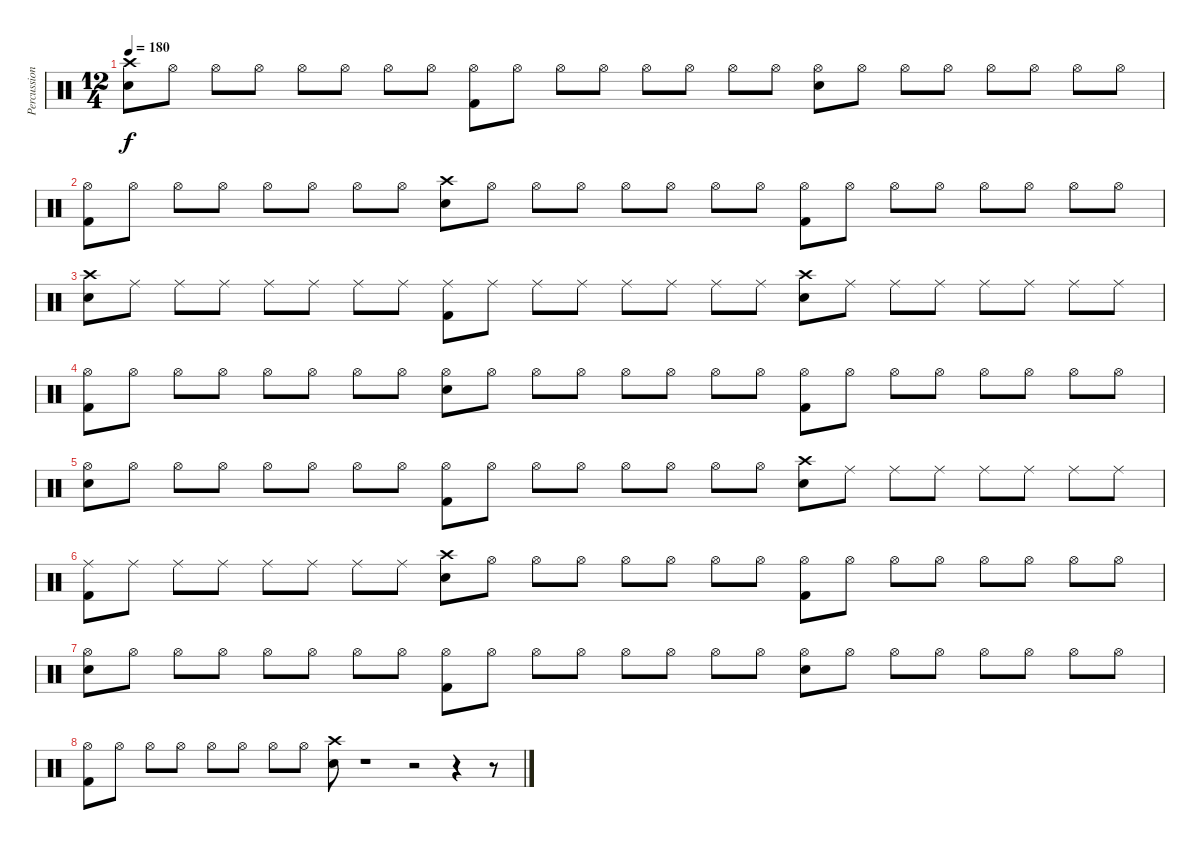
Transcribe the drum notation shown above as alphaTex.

\track ("Percussion" "Percussion") {instrument percussion}
\staff {score}
\articulation defaults
\ts (12 4)
\tempo 180
\clef neutral
\ks c
("Crash high (hit)" "Electric Snare (hit)").8{dy f} "Hi-Hat (open)".8 "Hi-Hat (open)".8 "Hi-Hat (open)".8 "Hi-Hat (open)".8 "Hi-Hat (open)".8 "Hi-Hat (open)".8 "Hi-Hat (open)".8 ("Hi-Hat (open)" "Kick (hit) 2").8 "Hi-Hat (open)".8 "Hi-Hat (open)".8 "Hi-Hat (open)".8 "Hi-Hat (open)".8 "Hi-Hat (open)".8 "Hi-Hat (open)".8 "Hi-Hat (open)".8 ("Hi-Hat (open)" "Electric Snare (hit)").8 "Hi-Hat (open)".8 "Hi-Hat (open)".8 "Hi-Hat (open)".8 "Hi-Hat (open)".8 "Hi-Hat (open)".8 "Hi-Hat (open)".8 "Hi-Hat (open)".8 |
("Hi-Hat (open)" "Kick (hit) 2").8 "Hi-Hat (open)".8 "Hi-Hat (open)".8 "Hi-Hat (open)".8 "Hi-Hat (open)".8 "Hi-Hat (open)".8 "Hi-Hat (open)".8 "Hi-Hat (open)".8 ("Crash high (hit)" "Electric Snare (hit)").8 "Hi-Hat (open)".8 "Hi-Hat (open)".8 "Hi-Hat (open)".8 "Hi-Hat (open)".8 "Hi-Hat (open)".8 "Hi-Hat (open)".8 "Hi-Hat (open)".8 ("Hi-Hat (open)" "Kick (hit) 2").8 "Hi-Hat (open)".8 "Hi-Hat (open)".8 "Hi-Hat (open)".8 "Hi-Hat (open)".8 "Hi-Hat (open)".8 "Hi-Hat (open)".8 "Hi-Hat (open)".8 |
("Crash high (hit)" "Electric Snare (hit)").8 "Ride (middle)".8 "Ride (middle)".8 "Ride (middle)".8 "Ride (middle)".8 "Ride (middle)".8 "Ride (middle)".8 "Ride (middle)".8 ("Ride (middle)" "Kick (hit) 2").8 "Ride (middle)".8 "Ride (middle)".8 "Ride (middle)".8 "Ride (middle)".8 "Ride (middle)".8 "Ride (middle)".8 "Ride (middle)".8 ("Crash high (hit)" "Electric Snare (hit)").8 "Ride (middle)".8 "Ride (middle)".8 "Ride (middle)".8 "Ride (middle)".8 "Ride (middle)".8 "Ride (middle)".8 "Ride (middle)".8 |
("Hi-Hat (open)" "Kick (hit) 2").8 "Hi-Hat (open)".8 "Hi-Hat (open)".8 "Hi-Hat (open)".8 "Hi-Hat (open)".8 "Hi-Hat (open)".8 "Hi-Hat (open)".8 "Hi-Hat (open)".8 ("Hi-Hat (open)" "Electric Snare (hit)").8 "Hi-Hat (open)".8 "Hi-Hat (open)".8 "Hi-Hat (open)".8 "Hi-Hat (open)".8 "Hi-Hat (open)".8 "Hi-Hat (open)".8 "Hi-Hat (open)".8 ("Hi-Hat (open)" "Kick (hit) 2").8 "Hi-Hat (open)".8 "Hi-Hat (open)".8 "Hi-Hat (open)".8 "Hi-Hat (open)".8 "Hi-Hat (open)".8 "Hi-Hat (open)".8 "Hi-Hat (open)".8 |
("Hi-Hat (open)" "Electric Snare (hit)").8 "Hi-Hat (open)".8 "Hi-Hat (open)".8 "Hi-Hat (open)".8 "Hi-Hat (open)".8 "Hi-Hat (open)".8 "Hi-Hat (open)".8 "Hi-Hat (open)".8 ("Hi-Hat (open)" "Kick (hit) 2").8 "Hi-Hat (open)".8 "Hi-Hat (open)".8 "Hi-Hat (open)".8 "Hi-Hat (open)".8 "Hi-Hat (open)".8 "Hi-Hat (open)".8 "Hi-Hat (open)".8 ("Crash high (hit)" "Electric Snare (hit)").8 "Ride (middle)".8 "Ride (middle)".8 "Ride (middle)".8 "Ride (middle)".8 "Ride (middle)".8 "Ride (middle)".8 "Ride (middle)".8 |
("Ride (middle)" "Kick (hit) 2").8 "Ride (middle)".8 "Ride (middle)".8 "Ride (middle)".8 "Ride (middle)".8 "Ride (middle)".8 "Ride (middle)".8 "Ride (middle)".8 ("Crash high (hit)" "Electric Snare (hit)").8 "Hi-Hat (open)".8 "Hi-Hat (open)".8 "Hi-Hat (open)".8 "Hi-Hat (open)".8 "Hi-Hat (open)".8 "Hi-Hat (open)".8 "Hi-Hat (open)".8 ("Hi-Hat (open)" "Kick (hit) 2").8 "Hi-Hat (open)".8 "Hi-Hat (open)".8 "Hi-Hat (open)".8 "Hi-Hat (open)".8 "Hi-Hat (open)".8 "Hi-Hat (open)".8 "Hi-Hat (open)".8 |
("Hi-Hat (open)" "Electric Snare (hit)").8 "Hi-Hat (open)".8 "Hi-Hat (open)".8 "Hi-Hat (open)".8 "Hi-Hat (open)".8 "Hi-Hat (open)".8 "Hi-Hat (open)".8 "Hi-Hat (open)".8 ("Hi-Hat (open)" "Kick (hit) 2").8 "Hi-Hat (open)".8 "Hi-Hat (open)".8 "Hi-Hat (open)".8 "Hi-Hat (open)".8 "Hi-Hat (open)".8 "Hi-Hat (open)".8 "Hi-Hat (open)".8 ("Hi-Hat (open)" "Electric Snare (hit)").8 "Hi-Hat (open)".8 "Hi-Hat (open)".8 "Hi-Hat (open)".8 "Hi-Hat (open)".8 "Hi-Hat (open)".8 "Hi-Hat (open)".8 "Hi-Hat (open)".8 |
("Hi-Hat (open)" "Kick (hit) 2").8 "Hi-Hat (open)".8 "Hi-Hat (open)".8 "Hi-Hat (open)".8 "Hi-Hat (open)".8 "Hi-Hat (open)".8 "Hi-Hat (open)".8 "Hi-Hat (open)".8 ("Crash high (hit)" "Electric Snare (hit)").8 r.1 r.2 r.4 r.8
